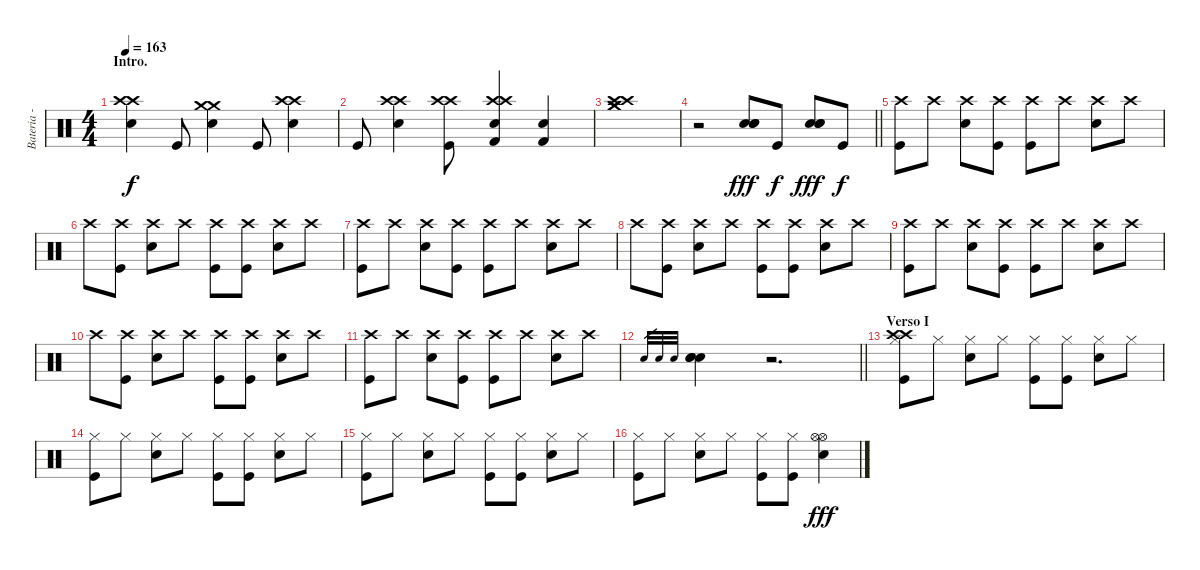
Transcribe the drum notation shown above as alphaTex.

\track ("Bateria - Larzon " "Bateria - ") {instrument percussion}
\staff {score}
\articulation defaults
\ts (4 4)
\section ("" "Intro.")
\tempo 163
\clef neutral
\ks c
("Electric Snare (hit)" "Crash high (hit)" "Crash high (hit)").4{dy f} "Kick (hit)".8 ("Electric Snare (hit)" "Crash medium (hit)" "Crash medium (hit)").4 "Kick (hit)".8 ("Electric Snare (hit)" "Crash high (hit)" "Crash high (hit)").4 |
"Kick (hit)".8 ("Electric Snare (hit)" "Crash high (hit)" "Crash high (hit)").4 ("Kick (hit)" "Crash high (hit)" "Crash high (hit)").8 ("Electric Snare (hit)" "Kick (hit) 2" "Crash high (hit)" "Crash high (hit)").4 ("Electric Snare (hit)" "Kick (hit) 2").4 |
("Crash high (hit)" "Crash medium (hit)" "Crash medium (hit)" "Crash high (hit)").1 |
\barLineRight lightlight
r.2 ("Electric Snare (hit)" "Electric Snare (hit)" "Electric Snare (hit)").8{dy fff} "Kick (hit)".8{dy f} ("Electric Snare (hit)" "Electric Snare (hit)" "Electric Snare (hit)").8{dy fff} "Kick (hit)".8{dy f} |
("Kick (hit)" "Crash high (hit)").8 "Crash high (hit)".8 ("Electric Snare (hit)" "Crash high (hit)").8 ("Kick (hit)" "Crash high (hit)").8 ("Kick (hit)" "Crash high (hit)").8 "Crash high (hit)".8 ("Electric Snare (hit)" "Crash high (hit)").8 "Crash high (hit)".8 |
"Crash high (hit)".8 ("Kick (hit)" "Crash high (hit)").8 ("Electric Snare (hit)" "Crash high (hit)").8 "Crash high (hit)".8 ("Kick (hit)" "Crash high (hit)").8 ("Kick (hit)" "Crash high (hit)").8 ("Electric Snare (hit)" "Crash high (hit)").8 "Crash high (hit)".8 |
("Kick (hit)" "Crash high (hit)").8 "Crash high (hit)".8 ("Electric Snare (hit)" "Crash high (hit)").8 ("Kick (hit)" "Crash high (hit)").8 ("Kick (hit)" "Crash high (hit)").8 "Crash high (hit)".8 ("Electric Snare (hit)" "Crash high (hit)").8 "Crash high (hit)".8 |
"Crash high (hit)".8 ("Kick (hit)" "Crash high (hit)").8 ("Electric Snare (hit)" "Crash high (hit)").8 "Crash high (hit)".8 ("Kick (hit)" "Crash high (hit)").8 ("Kick (hit)" "Crash high (hit)").8 ("Electric Snare (hit)" "Crash high (hit)").8 "Crash high (hit)".8 |
("Kick (hit)" "Crash high (hit)").8 "Crash high (hit)".8 ("Electric Snare (hit)" "Crash high (hit)").8 ("Kick (hit)" "Crash high (hit)").8 ("Kick (hit)" "Crash high (hit)").8 "Crash high (hit)".8 ("Electric Snare (hit)" "Crash high (hit)").8 "Crash high (hit)".8 |
"Crash high (hit)".8 ("Kick (hit)" "Crash high (hit)").8 ("Electric Snare (hit)" "Crash high (hit)").8 "Crash high (hit)".8 ("Kick (hit)" "Crash high (hit)").8 ("Kick (hit)" "Crash high (hit)").8 ("Electric Snare (hit)" "Crash high (hit)").8 "Crash high (hit)".8 |
("Kick (hit)" "Crash high (hit)").8 "Crash high (hit)".8 ("Electric Snare (hit)" "Crash high (hit)").8 ("Kick (hit)" "Crash high (hit)").8 ("Kick (hit)" "Crash high (hit)").8 "Crash high (hit)".8 ("Electric Snare (hit)" "Crash high (hit)").8 "Crash high (hit)".8 |
\barLineRight lightlight "Electric Snare (hit)".32{gr} "Electric Snare (hit)".32{gr} "Electric Snare (hit)".32{gr}
("Electric Snare (hit)" "Electric Snare (hit)" "Electric Snare (hit)").4 r.2{d} |
\section ("" "Verso I")
("Kick (hit)" "Hi-Hat (closed)" "Crash high (hit)" "Crash high (hit)").8 "Hi-Hat (closed)".8 ("Electric Snare (hit)" "Hi-Hat (closed)").8 "Hi-Hat (closed)".8 ("Kick (hit)" "Hi-Hat (closed)").8 ("Kick (hit)" "Hi-Hat (closed)").8 ("Electric Snare (hit)" "Hi-Hat (closed)").8 "Hi-Hat (closed)".8 |
("Kick (hit)" "Hi-Hat (closed)").8 "Hi-Hat (closed)".8 ("Electric Snare (hit)" "Hi-Hat (closed)").8 "Hi-Hat (closed)".8 ("Kick (hit)" "Hi-Hat (closed)").8 ("Kick (hit)" "Hi-Hat (closed)").8 ("Electric Snare (hit)" "Hi-Hat (closed)").8 "Hi-Hat (closed)".8 |
("Kick (hit)" "Hi-Hat (closed)").8 "Hi-Hat (closed)".8 ("Electric Snare (hit)" "Hi-Hat (closed)").8 "Hi-Hat (closed)".8 ("Kick (hit)" "Hi-Hat (closed)").8 ("Kick (hit)" "Hi-Hat (closed)").8 ("Electric Snare (hit)" "Hi-Hat (closed)").8 "Hi-Hat (closed)".8 |
("Kick (hit)" "Hi-Hat (closed)").8 "Hi-Hat (closed)".8 ("Electric Snare (hit)" "Hi-Hat (closed)").8 "Hi-Hat (closed)".8 ("Kick (hit)" "Hi-Hat (closed)").8 ("Kick (hit)" "Hi-Hat (closed)").8 ("Electric Snare (hit)" "Hi-Hat (open)" "Hi-Hat (open)").4{dy fff}
